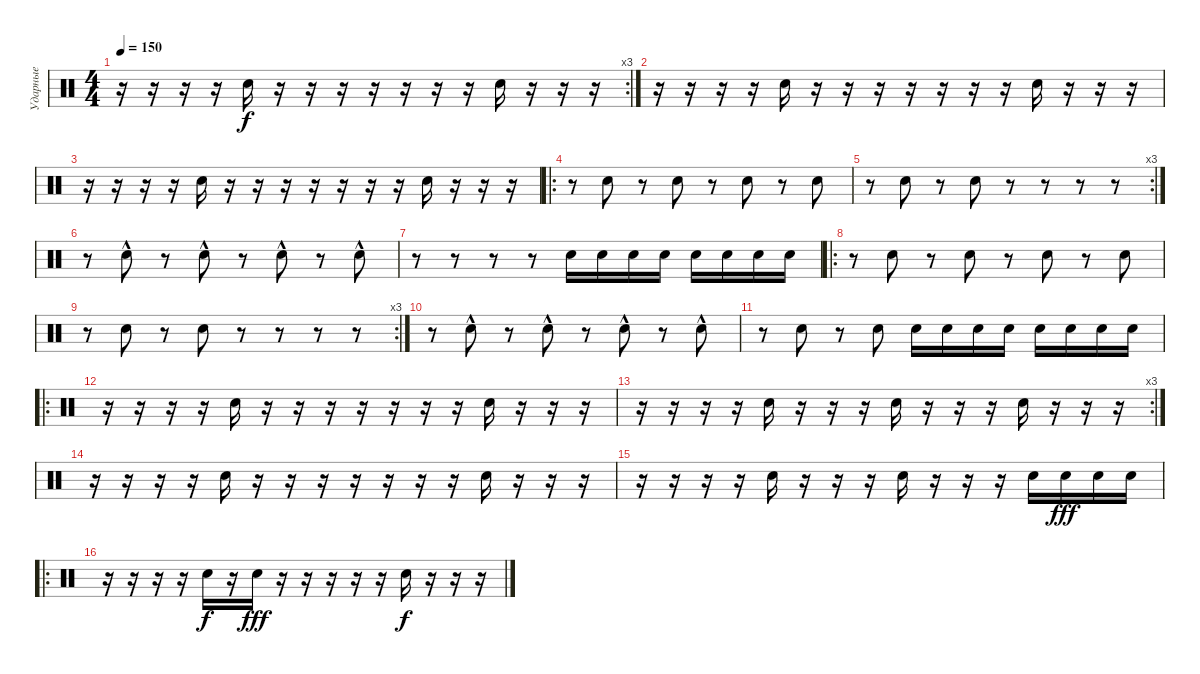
\track ("Ударные" "Ударные") {instrument percussion}
\staff {score}
\articulation defaults
\rc 3
\ts (4 4)
\tempo 150
\clef neutral
\ks c
r.16{dy f} r.16 r.16 r.16 "Snare (hit) 2".16 r.16 r.16 r.16 r.16 r.16 r.16 r.16 "Snare (hit) 2".16 r.16 r.16 r.16 |
r.16 r.16 r.16 r.16 "Snare (hit) 2".16 r.16 r.16 r.16 r.16 r.16 r.16 r.16 "Snare (hit) 2".16 r.16 r.16 r.16 |
r.16 r.16 r.16 r.16 "Snare (hit) 2".16 r.16 r.16 r.16 r.16 r.16 r.16 r.16 "Snare (hit) 2".16 r.16 r.16 r.16 |
\ro
r.8 "Electric Snare (hit)".8 r.8 "Electric Snare (hit)".8 r.8 "Electric Snare (hit)".8 r.8 "Electric Snare (hit)".8 |
\rc 3
r.8 "Electric Snare (hit)".8 r.8 "Electric Snare (hit)".8 r.8 r.8 r.8 r.8 |
r.8 "Electric Snare (hit)"{hac}.8 r.8 "Electric Snare (hit)"{hac}.8 r.8 "Electric Snare (hit)"{hac}.8 r.8 "Electric Snare (hit)"{hac}.8 |
r.8 r.8 r.8 r.8 "Snare (hit) 2".16 "Snare (hit) 2".16 "Snare (hit) 2".16 "Snare (hit) 2".16 "Snare (hit) 2".16 "Snare (hit) 2".16 "Snare (hit) 2".16 "Snare (hit) 2".16 |
\ro
r.8 "Electric Snare (hit)".8 r.8 "Electric Snare (hit)".8 r.8 "Electric Snare (hit)".8 r.8 "Electric Snare (hit)".8 |
\rc 3
r.8 "Electric Snare (hit)".8 r.8 "Electric Snare (hit)".8 r.8 r.8 r.8 r.8 |
r.8 "Electric Snare (hit)"{hac}.8 r.8 "Electric Snare (hit)"{hac}.8 r.8 "Electric Snare (hit)"{hac}.8 r.8 "Electric Snare (hit)"{hac}.8 |
r.8 "Electric Snare (hit)".8 r.8 "Electric Snare (hit)".8 "Snare (hit) 2".16 "Snare (hit) 2".16 "Snare (hit) 2".16 "Snare (hit) 2".16 "Snare (hit) 2".16 "Snare (hit) 2".16 "Snare (hit) 2".16 "Snare (hit) 2".16 |
\ro
r.16 r.16 r.16 r.16 "Snare (hit) 2".16 r.16 r.16 r.16 r.16 r.16 r.16 r.16 "Snare (hit) 2".16 r.16 r.16 r.16 |
\rc 3
r.16 r.16 r.16 r.16 "Snare (hit) 2".16 r.16 r.16 r.16 "Snare (hit) 2".16 r.16 r.16 r.16 "Snare (hit) 2".16 r.16 r.16 r.16 |
r.16 r.16 r.16 r.16 "Snare (hit) 2".16 r.16 r.16 r.16 r.16 r.16 r.16 r.16 "Snare (hit) 2".16 r.16 r.16 r.16 |
r.16 r.16 r.16 r.16 "Snare (hit) 2".16 r.16 r.16 r.16 "Snare (hit) 2".16 r.16 r.16 r.16 "Snare (hit) 2".16 "Snare (hit) 2".16{dy fff} "Snare (hit) 2".16 "Snare (hit) 2".16 |
\ro
r.16 r.16 r.16 r.16 "Snare (hit) 2".16{dy f} r.16 "Snare (hit) 2".16{dy fff} r.16 r.16 r.16 r.16 r.16 "Snare (hit) 2".16{dy f} r.16 r.16 r.16
